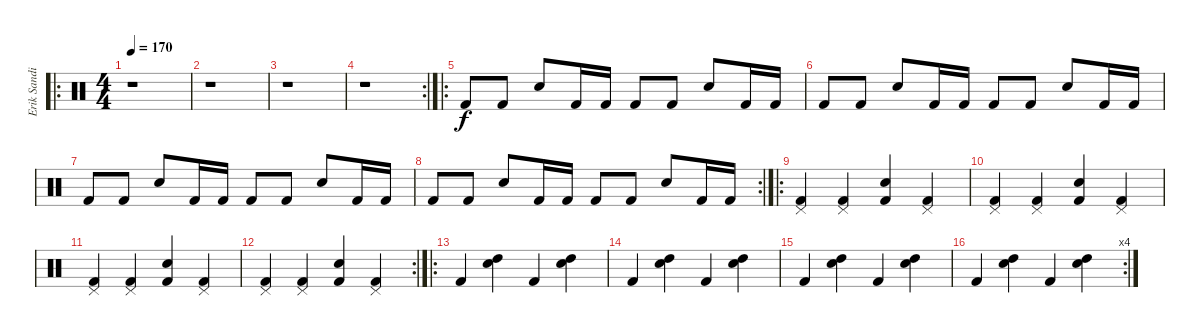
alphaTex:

\track ("Erik Sandin (Drums)" "Erik Sandi") {instrument percussion}
\staff {score}
\articulation defaults
\ro
\ts (4 4)
\tempo 170
\clef neutral
\ks c
r.1{dy f} |
r.1 |
r.1 |
\rc 2
r.1 |
\ro "Kick (hit) 2".8 "Kick (hit) 2".8 "Snare (hit) 2".8 "Kick (hit) 2".16 "Kick (hit) 2".16 "Kick (hit) 2".8 "Kick (hit) 2".8 "Snare (hit) 2".8 "Kick (hit) 2".16 "Kick (hit) 2".16
|
"Kick (hit) 2".8 "Kick (hit) 2".8 "Snare (hit) 2".8 "Kick (hit) 2".16 "Kick (hit) 2".16 "Kick (hit) 2".8 "Kick (hit) 2".8 "Snare (hit) 2".8 "Kick (hit) 2".16 "Kick (hit) 2".16 |
"Kick (hit) 2".8 "Kick (hit) 2".8 "Snare (hit) 2".8 "Kick (hit) 2".16 "Kick (hit) 2".16 "Kick (hit) 2".8 "Kick (hit) 2".8 "Snare (hit) 2".8 "Kick (hit) 2".16 "Kick (hit) 2".16 |
\rc 2 "Kick (hit) 2".8 "Kick (hit) 2".8 "Snare (hit) 2".8 "Kick (hit) 2".16 "Kick (hit) 2".16 "Kick (hit) 2".8 "Kick (hit) 2".8 "Snare (hit) 2".8 "Kick (hit) 2".16 "Kick (hit) 2".16
|
\ro
("Kick (hit) 2" "Pedal Hi-Hat (hit)").4 ("Kick (hit) 2" "Pedal Hi-Hat (hit)").4 ("Kick (hit) 2" "Electric Snare (hit)").4 ("Kick (hit) 2" "Pedal Hi-Hat (hit)").4 |
("Kick (hit) 2" "Pedal Hi-Hat (hit)").4 ("Kick (hit) 2" "Pedal Hi-Hat (hit)").4 ("Kick (hit) 2" "Electric Snare (hit)").4 ("Kick (hit) 2" "Pedal Hi-Hat (hit)").4 |
("Kick (hit) 2" "Pedal Hi-Hat (hit)").4 ("Kick (hit) 2" "Pedal Hi-Hat (hit)").4 ("Kick (hit) 2" "Electric Snare (hit)").4 ("Kick (hit) 2" "Pedal Hi-Hat (hit)").4 |
\rc 2
("Kick (hit) 2" "Pedal Hi-Hat (hit)").4 ("Kick (hit) 2" "Pedal Hi-Hat (hit)").4 ("Kick (hit) 2" "Electric Snare (hit)").4 ("Kick (hit) 2" "Pedal Hi-Hat (hit)").4 |
\ro "Kick (hit) 2".4
("High Tom (hit)" "Electric Snare (hit)").4 "Kick (hit) 2".4 ("High Tom (hit)" "Electric Snare (hit)").4 |
"Kick (hit) 2".4 ("High Tom (hit)" "Electric Snare (hit)").4 "Kick (hit) 2".4 ("High Tom (hit)" "Electric Snare (hit)").4 |
"Kick (hit) 2".4 ("High Tom (hit)" "Electric Snare (hit)").4 "Kick (hit) 2".4 ("High Tom (hit)" "Electric Snare (hit)").4 |
\rc 4 "Kick (hit) 2".4
("High Tom (hit)" "Electric Snare (hit)").4 "Kick (hit) 2".4 ("High Tom (hit)" "Electric Snare (hit)").4
